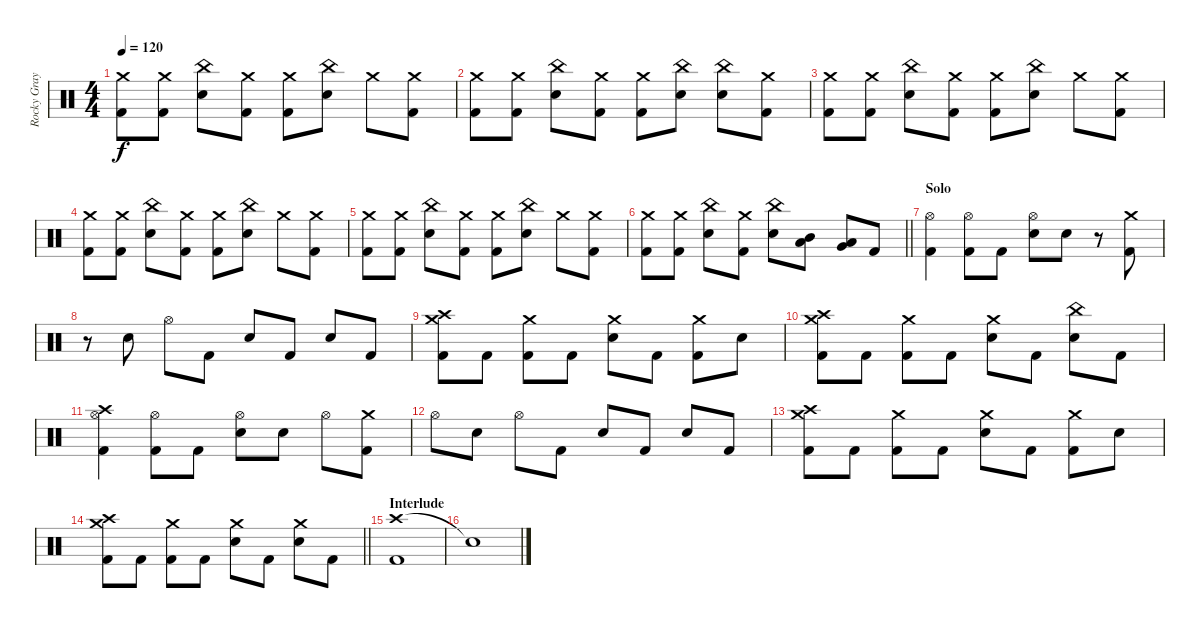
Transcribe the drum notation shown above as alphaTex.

\track ("Rocky Gray" "Rocky Gray") {instrument percussion}
\staff {score}
\articulation defaults
\ts (4 4)
\tempo 120
\clef neutral
\ks c
("Crash medium (hit)" "Kick (hit) 2").8{dy f} ("Crash medium (hit)" "Kick (hit) 2").8 ("China (hit)" "Electric Snare (hit)").8 ("Crash medium (hit)" "Kick (hit) 2").8 ("Crash medium (hit)" "Kick (hit) 2").8 ("China (hit)" "Electric Snare (hit)").8 "Crash medium (hit)".8 ("Crash medium (hit)" "Kick (hit) 2").8 |
("Crash medium (hit)" "Kick (hit) 2").8 ("Crash medium (hit)" "Kick (hit) 2").8 ("China (hit)" "Electric Snare (hit)").8 ("Crash medium (hit)" "Kick (hit) 2").8 ("Crash medium (hit)" "Kick (hit) 2").8 ("China (hit)" "Electric Snare (hit)").8 ("China (hit)" "Electric Snare (hit)").8 ("Crash medium (hit)" "Kick (hit) 2").8 |
("Crash medium (hit)" "Kick (hit) 2").8 ("Crash medium (hit)" "Kick (hit) 2").8 ("China (hit)" "Electric Snare (hit)").8 ("Crash medium (hit)" "Kick (hit) 2").8 ("Crash medium (hit)" "Kick (hit) 2").8 ("China (hit)" "Electric Snare (hit)").8 "Crash medium (hit)".8 ("Crash medium (hit)" "Kick (hit) 2").8 |
("Crash medium (hit)" "Kick (hit) 2").8 ("Crash medium (hit)" "Kick (hit) 2").8 ("China (hit)" "Electric Snare (hit)").8 ("Crash medium (hit)" "Kick (hit) 2").8 ("Crash medium (hit)" "Kick (hit) 2").8 ("China (hit)" "Electric Snare (hit)").8 "Crash medium (hit)".8 ("Crash medium (hit)" "Kick (hit) 2").8 |
("Crash medium (hit)" "Kick (hit) 2").8 ("Crash medium (hit)" "Kick (hit) 2").8 ("China (hit)" "Electric Snare (hit)").8 ("Crash medium (hit)" "Kick (hit) 2").8 ("Crash medium (hit)" "Kick (hit) 2").8 ("China (hit)" "Electric Snare (hit)").8 "Crash medium (hit)".8 ("Crash medium (hit)" "Kick (hit) 2").8 |
\barLineRight lightlight
("Crash medium (hit)" "Kick (hit) 2").8 ("Crash medium (hit)" "Kick (hit) 2").8 ("China (hit)" "Electric Snare (hit)").8 ("Crash medium (hit)" "Kick (hit) 2").8 ("China (hit)" "Electric Snare (hit)").8 ("Low Tom (hit)" "Mid Tom (hit)").8 ("Very Low Tom (hit)" "Low Floor Tom (hit)").8 "Kick (hit) 2".8 |
\section ("" "Solo")
("Hi-Hat (open)" "Kick (hit) 2").4 ("Hi-Hat (open)" "Kick (hit) 2").8 "Kick (hit) 2".8 ("Hi-Hat (open)" "Electric Snare (hit)").8 "Electric Snare (hit)".8 r.8 ("Crash medium (hit)" "Kick (hit) 2").8 |
r.8 "Electric Snare (hit)".8 "Hi-Hat (open)".8 "Kick (hit) 2".8 "Electric Snare (hit)".8 "Kick (hit) 2".8 "Electric Snare (hit)".8 "Kick (hit) 2".8 |
("Crash high (hit)" "Crash medium (hit)" "Kick (hit) 2").8 "Kick (hit) 2".8 ("Crash medium (hit)" "Kick (hit) 2").8 "Kick (hit) 2".8 ("Crash medium (hit)" "Electric Snare (hit)").8 "Kick (hit) 2".8 ("Crash medium (hit)" "Kick (hit) 2").8 "Electric Snare (hit)".8 |
("Crash high (hit)" "Crash medium (hit)" "Kick (hit) 2").8 "Kick (hit) 2".8 ("Crash medium (hit)" "Kick (hit) 2").8 "Kick (hit) 2".8 ("Crash medium (hit)" "Electric Snare (hit)").8 "Kick (hit) 2".8 ("China (hit)" "Electric Snare (hit)").8 "Kick (hit) 2".8 |
("Crash high (hit)" "Hi-Hat (open)" "Kick (hit) 2").4 ("Hi-Hat (open)" "Kick (hit) 2").8 "Kick (hit) 2".8 ("Hi-Hat (open)" "Electric Snare (hit)").8 "Electric Snare (hit)".8 "Hi-Hat (open)".8 ("Crash medium (hit)" "Kick (hit) 2").8 |
"Hi-Hat (open)".8 "Electric Snare (hit)".8 "Hi-Hat (open)".8 "Kick (hit) 2".8 "Electric Snare (hit)".8 "Kick (hit) 2".8 "Electric Snare (hit)".8 "Kick (hit) 2".8 |
("Crash high (hit)" "Crash medium (hit)" "Kick (hit) 2").8 "Kick (hit) 2".8 ("Crash medium (hit)" "Kick (hit) 2").8 "Kick (hit) 2".8 ("Crash medium (hit)" "Electric Snare (hit)").8 "Kick (hit) 2".8 ("Crash medium (hit)" "Kick (hit) 2").8 "Electric Snare (hit)".8 |
\barLineRight lightlight
("Crash high (hit)" "Crash medium (hit)" "Kick (hit) 2").8 "Kick (hit) 2".8 ("Crash medium (hit)" "Kick (hit) 2").8 "Kick (hit) 2".8 ("Crash medium (hit)" "Electric Snare (hit)").8 "Kick (hit) 2".8 ("Crash medium (hit)" "Electric Snare (hit)").8 "Kick (hit) 2".8 |
\section ("" "Interlude")
("Crash high (hit)" "Kick (hit) 2").1 |
"Snare (hit)"{t}.1
